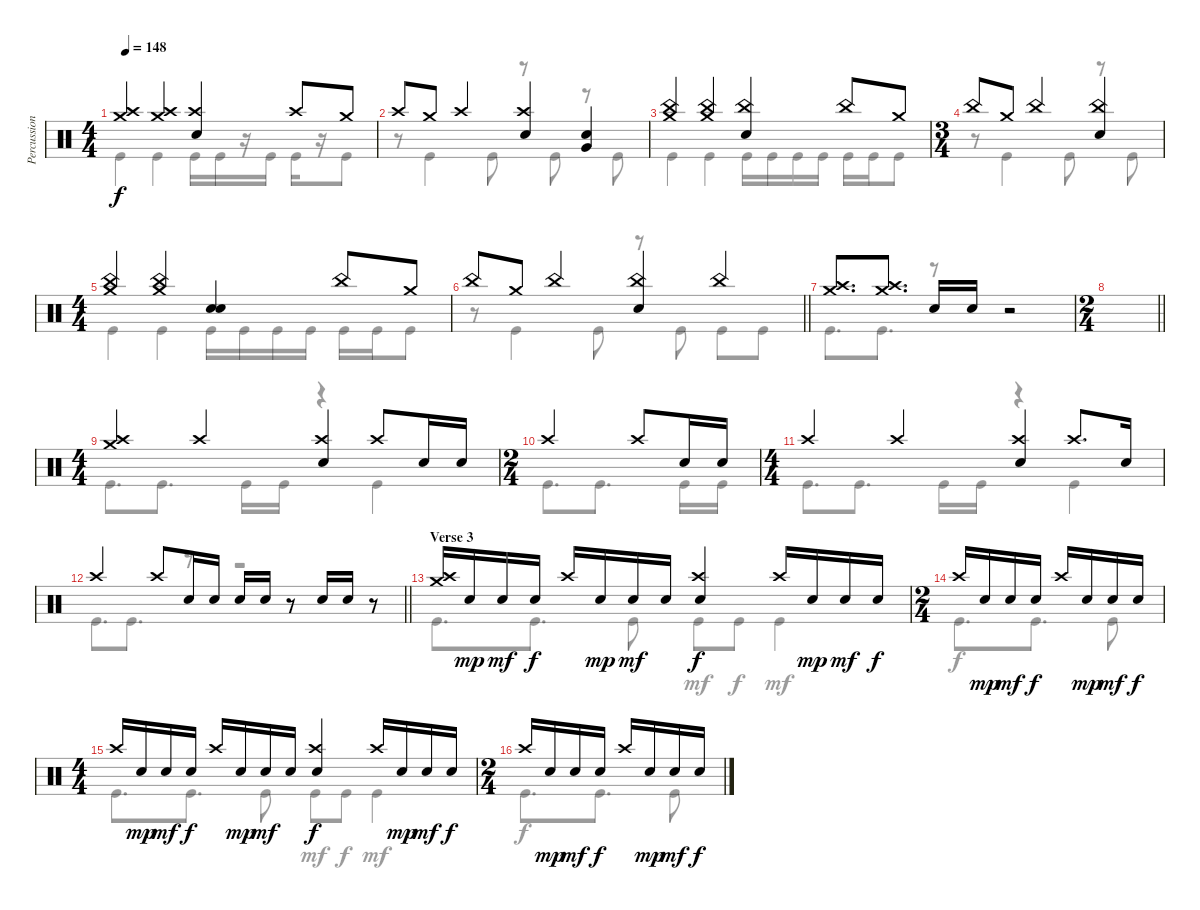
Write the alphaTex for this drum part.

\track ("Percussion" "Percussion") {instrument percussion}
\staff {score}
\articulation defaults
\voice
\ts (4 4)
\tempo 148
\clef neutral
\ks c
("Crash medium (hit)" "Crash high (hit)").4{dy f} ("Crash medium (hit)" "Crash high (hit)").4 ("Crash high (hit)" "Electric Snare (hit)").4 "Crash high (hit)".8 "Crash medium (hit)".8 |
"Crash high (hit)".8 "Crash medium (hit)".8 "Crash high (hit)".4 ("Crash high (hit)" "Electric Snare (hit)").4 ("Very Low Tom (hit)" "Electric Snare (hit)").4 |
("Crash medium (hit)" "China (hit)").4 ("Crash medium (hit)" "China (hit)").4 ("China (hit)" "Electric Snare (hit)").4 "China (hit)".8 "Crash medium (hit)".8 |
\ts (3 4)
"China (hit)".8 "Crash medium (hit)".8 "China (hit)".4 ("China (hit)" "Electric Snare (hit)").4 |
\ts (4 4)
("Crash medium (hit)" "China (hit)").4 ("Crash medium (hit)" "China (hit)").4 ("Snare (hit)" "Electric Snare (hit)").4 "China (hit)".8 "Crash medium (hit)".8 |
\barLineRight lightlight "China (hit)".8 "Crash medium (hit)".8 "China (hit)".4
("China (hit)" "Electric Snare (hit)").4 "China (hit)".4 |
\section ("" "")
("Crash medium (hit)" "Crash high (hit)").8{d} ("Crash medium (hit)" "Crash high (hit)").8{d} "Electric Snare (hit)".16 "Electric Snare (hit)".16 r.2 |
\ts (2 4)
\barLineRight lightlight
|
\ts (4 4)
\section ("" "")
("Crash medium (hit)" "Crash high (hit)").4 "Crash high (hit)".4 ("Crash high (hit)" "Electric Snare (hit)").4 "Crash high (hit)".8 "Electric Snare (hit)".16 "Electric Snare (hit)".16 |
\ts (2 4)
"Crash high (hit)".4 "Crash high (hit)".8 "Electric Snare (hit)".16 "Electric Snare (hit)".16 |
\ts (4 4)
"Crash high (hit)".4 "Crash high (hit)".4 ("Crash high (hit)" "Electric Snare (hit)").4 "Crash high (hit)".8{d} "Electric Snare (hit)".16 |
\barLineRight lightlight "Crash high (hit)".4 "Crash high (hit)".8 "Electric Snare (hit)".16 "Electric Snare (hit)".16 "Electric Snare (hit)".16 "Electric Snare (hit)".16
r.8 "Electric Snare (hit)".16 "Electric Snare (hit)".16 r.8 |
\section ("" "Verse 3")
("Crash medium (hit)" "Crash high (hit)").16 "Electric Snare (hit)".16{dy mp} "Electric Snare (hit)".16{dy mf} "Electric Snare (hit)".16{dy f} "Crash high (hit)".16 "Electric Snare (hit)".16{dy mp} "Electric Snare (hit)".16{dy mf} "Electric Snare (hit)".16 ("Crash high (hit)" "Electric Snare (hit)").4{dy f} "Crash high (hit)".16 "Electric Snare (hit)".16{dy mp} "Electric Snare (hit)".16{dy mf} "Electric Snare (hit)".16{dy f} |
\ts (2 4)
"Crash high (hit)".16 "Electric Snare (hit)".16{dy mp} "Electric Snare (hit)".16{dy mf} "Electric Snare (hit)".16{dy f} "Crash high (hit)".16 "Electric Snare (hit)".16{dy mp} "Electric Snare (hit)".16{dy mf} "Electric Snare (hit)".16{dy f} |
\ts (4 4)
"Crash high (hit)".16 "Electric Snare (hit)".16{dy mp} "Electric Snare (hit)".16{dy mf} "Electric Snare (hit)".16{dy f} "Crash high (hit)".16 "Electric Snare (hit)".16{dy mp} "Electric Snare (hit)".16{dy mf} "Electric Snare (hit)".16 ("Crash high (hit)" "Electric Snare (hit)").4{dy f} "Crash high (hit)".16 "Electric Snare (hit)".16{dy mp} "Electric Snare (hit)".16{dy mf} "Electric Snare (hit)".16{dy f} |
\ts (2 4)
"Crash high (hit)".16 "Electric Snare (hit)".16{dy mp} "Electric Snare (hit)".16{dy mf} "Electric Snare (hit)".16{dy f} "Crash high (hit)".16 "Electric Snare (hit)".16{dy mp} "Electric Snare (hit)".16{dy mf} "Electric Snare (hit)".16{dy f}
\voice
\clef neutral
\ottava regular
\simile none
\ks c "Kick (hit)".4{dy f} "Kick (hit)".4 "Kick (hit)".16 "Kick (hit)".16
r.16 "Kick (hit)".16 "Kick (hit)".16 r.16 "Kick (hit)".8 |
r.8 "Kick (hit)".4 "Kick (hit)".8 r.8 "Kick (hit)".8 r.8 "Kick (hit)".8 |
"Kick (hit)".4 "Kick (hit)".4 "Kick (hit)".16 "Kick (hit)".16 "Kick (hit)".16 "Kick (hit)".16 "Kick (hit)".16 "Kick (hit)".16 "Kick (hit)".8 |
r.8 "Kick (hit)".4 "Kick (hit)".8 r.8 "Kick (hit)".8 |
"Kick (hit)".4 "Kick (hit)".4 "Kick (hit)".16 "Kick (hit)".16 "Kick (hit)".16 "Kick (hit)".16 "Kick (hit)".16 "Kick (hit)".16 "Kick (hit)".8 |
\barLineRight lightlight
r.8 "Kick (hit)".4 "Kick (hit)".8 r.8 "Kick (hit)".8 "Kick (hit)".8 "Kick (hit)".8 |
"Kick (hit)".8{d} "Kick (hit)".8{d} r.8 r.2 |
\barLineRight lightlight
|
"Kick (hit)".8{d} "Kick (hit)".8{d} "Kick (hit)".16 "Kick (hit)".16 r.4 "Kick (hit)".4 |
"Kick (hit)".8{d} "Kick (hit)".8{d} "Kick (hit)".16 "Kick (hit)".16 |
"Kick (hit)".8{d} "Kick (hit)".8{d} "Kick (hit)".16 "Kick (hit)".16 r.4 "Kick (hit)".4 |
\barLineRight lightlight "Kick (hit)".8{d} "Kick (hit)".8{d}
r.8 r.2 |
"Kick (hit)".8{d} "Kick (hit)".8{d} "Kick (hit)".8 "Kick (hit)".8{dy mf} "Kick (hit)".8{dy f} "Kick (hit)".4{dy mf} |
"Kick (hit)".8{d dy f} "Kick (hit)".8{d} "Kick (hit)".8 |
"Kick (hit)".8{d} "Kick (hit)".8{d} "Kick (hit)".8 "Kick (hit)".8{dy mf} "Kick (hit)".8{dy f} "Kick (hit)".4{dy mf} |
"Kick (hit)".8{d dy f} "Kick (hit)".8{d} "Kick (hit)".8
